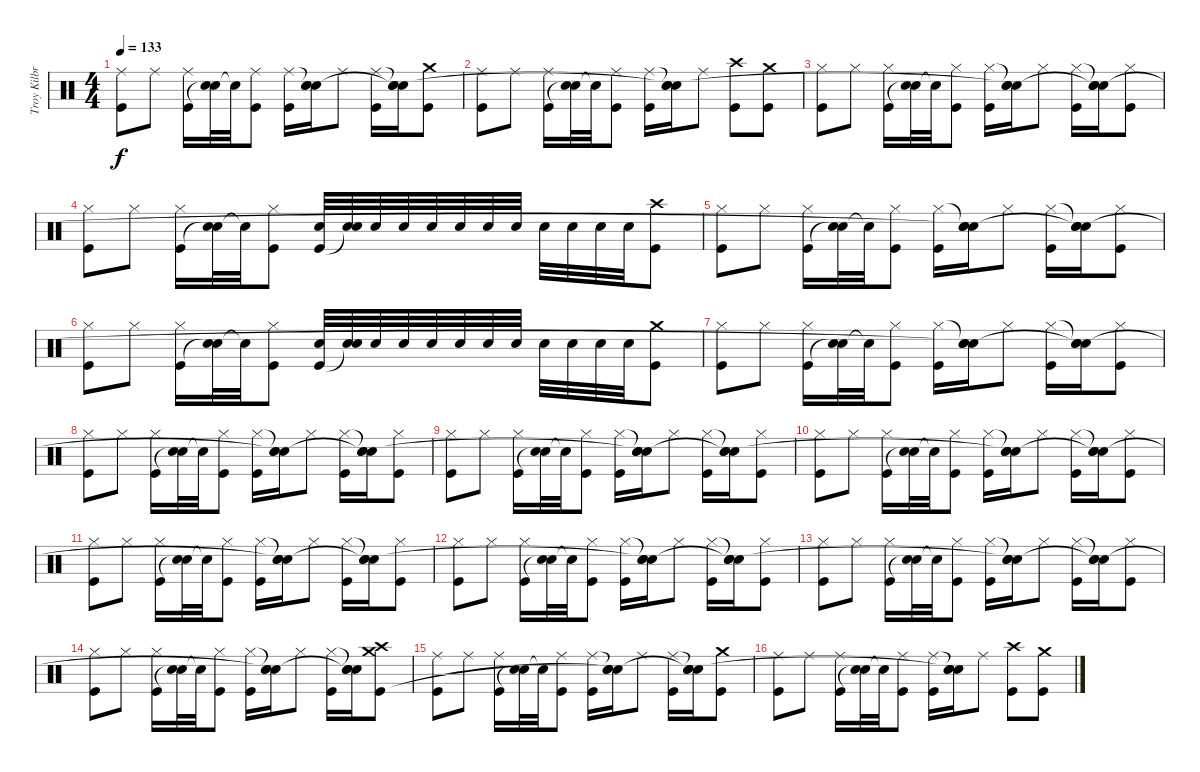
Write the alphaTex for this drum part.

\track ("Troy Kilbride" "Troy Kilbr") {instrument percussion}
\staff {score}
\articulation defaults
\ts (4 4)
\tempo 133
\clef neutral
\ks c
("Ride (middle)" "Kick (hit)").8{dy f} "Ride (middle)".8 ("Ride (middle)" "Kick (hit)").16 ("Electric Snare (hit)" "Snare (hit)"{t}).32 "Snare (hit)"{t}.32 ("Ride (middle)" "Kick (hit)").8 ("Ride (middle)" "Kick (hit)").16 ("Snare (hit)"{t} "Electric Snare (hit)" "Snare (hit)"{t}).16 "Ride (middle)".8 ("Ride (middle)" "Kick (hit)").16 ("Snare (hit)"{t} "Electric Snare (hit)" "Snare (hit)"{t}).16 ("Crash medium (hit)" "Kick (hit)").8 |
("Ride (middle)" "Kick (hit)").8 "Ride (middle)".8 ("Ride (middle)" "Kick (hit)").16 ("Electric Snare (hit)" "Snare (hit)"{t}).32 "Snare (hit)"{t}.32 ("Ride (middle)" "Kick (hit)").8 ("Ride (middle)" "Kick (hit)").16 ("Snare (hit)"{t} "Electric Snare (hit)" "Snare (hit)"{t}).16 "Ride (middle)".8 ("Crash high (hit)" "Kick (hit)").8 ("Crash medium (hit)" "Kick (hit)").8 |
("Hi-Hat (closed)" "Kick (hit)").8 "Hi-Hat (closed)".8 ("Hi-Hat (closed)" "Kick (hit)").16 ("Electric Snare (hit)" "Snare (hit)"{t}).32 "Snare (hit)"{t}.32 ("Hi-Hat (closed)" "Kick (hit)").8 ("Hi-Hat (closed)" "Kick (hit)").16 ("Snare (hit)"{t} "Electric Snare (hit)" "Snare (hit)"{t}).16 "Hi-Hat (closed)".8 ("Hi-Hat (closed)" "Kick (hit)").16 ("Snare (hit)"{t} "Electric Snare (hit)" "Snare (hit)"{t}).16 ("Hi-Hat (closed)" "Kick (hit)").8 |
("Hi-Hat (closed)" "Kick (hit)").8 "Hi-Hat (closed)".8 ("Hi-Hat (closed)" "Kick (hit)").16 ("Electric Snare (hit)" "Snare (hit)"{t}).32 "Snare (hit)"{t}.32 ("Hi-Hat (closed)" "Kick (hit)").8 ("Electric Snare (hit)" "Kick (hit)").32 ("Electric Snare (hit)" "Snare (hit)"{t}).32 "Electric Snare (hit)".32 "Electric Snare (hit)".32 "Electric Snare (hit)".32 "Electric Snare (hit)".32 "Electric Snare (hit)".32 "Electric Snare (hit)".32 "Electric Snare (hit)".32 "Electric Snare (hit)".32 "Electric Snare (hit)".32 "Electric Snare (hit)".32 ("Crash high (hit)" "Kick (hit)").8 |
("Hi-Hat (closed)" "Kick (hit)").8 "Hi-Hat (closed)".8 ("Hi-Hat (closed)" "Kick (hit)").16 ("Electric Snare (hit)" "Snare (hit)"{t}).32 "Snare (hit)"{t}.32 ("Hi-Hat (closed)" "Kick (hit)").8 ("Hi-Hat (closed)" "Kick (hit)").16 ("Snare (hit)"{t} "Electric Snare (hit)" "Snare (hit)"{t}).16 "Hi-Hat (closed)".8 ("Hi-Hat (closed)" "Kick (hit)").16 ("Snare (hit)"{t} "Electric Snare (hit)" "Snare (hit)"{t}).16 ("Hi-Hat (closed)" "Kick (hit)").8 |
("Hi-Hat (closed)" "Kick (hit)").8 "Hi-Hat (closed)".8 ("Hi-Hat (closed)" "Kick (hit)").16 ("Electric Snare (hit)" "Snare (hit)"{t}).32 "Snare (hit)"{t}.32 ("Hi-Hat (closed)" "Kick (hit)").8 ("Electric Snare (hit)" "Kick (hit)").32 ("Electric Snare (hit)" "Snare (hit)"{t}).32 "Electric Snare (hit)".32 "Electric Snare (hit)".32 "Electric Snare (hit)".32 "Electric Snare (hit)".32 "Electric Snare (hit)".32 "Electric Snare (hit)".32 "Electric Snare (hit)".32 "Electric Snare (hit)".32 "Electric Snare (hit)".32 "Electric Snare (hit)".32 ("Crash medium (hit)" "Kick (hit)").8 |
("Hi-Hat (closed)" "Kick (hit)").8 "Hi-Hat (closed)".8 ("Hi-Hat (closed)" "Kick (hit)").16 ("Electric Snare (hit)" "Snare (hit)"{t}).32 "Snare (hit)"{t}.32 ("Hi-Hat (closed)" "Kick (hit)").8 ("Hi-Hat (closed)" "Kick (hit)").16 ("Snare (hit)"{t} "Electric Snare (hit)" "Snare (hit)"{t}).16 "Hi-Hat (closed)".8 ("Hi-Hat (closed)" "Kick (hit)").16 ("Snare (hit)"{t} "Electric Snare (hit)" "Snare (hit)"{t}).16 ("Hi-Hat (closed)" "Kick (hit)").8 |
("Hi-Hat (closed)" "Kick (hit)").8 "Hi-Hat (closed)".8 ("Hi-Hat (closed)" "Kick (hit)").16 ("Electric Snare (hit)" "Snare (hit)"{t}).32 "Snare (hit)"{t}.32 ("Hi-Hat (closed)" "Kick (hit)").8 ("Hi-Hat (closed)" "Kick (hit)").16 ("Snare (hit)"{t} "Electric Snare (hit)" "Snare (hit)"{t}).16 "Hi-Hat (closed)".8 ("Hi-Hat (closed)" "Kick (hit)").16 ("Snare (hit)"{t} "Electric Snare (hit)" "Snare (hit)"{t}).16 ("Hi-Hat (closed)" "Kick (hit)").8 |
("Hi-Hat (closed)" "Kick (hit)").8 "Hi-Hat (closed)".8 ("Hi-Hat (closed)" "Kick (hit)").16 ("Electric Snare (hit)" "Snare (hit)"{t}).32 "Snare (hit)"{t}.32 ("Hi-Hat (closed)" "Kick (hit)").8 ("Hi-Hat (closed)" "Kick (hit)").16 ("Snare (hit)"{t} "Electric Snare (hit)" "Snare (hit)"{t}).16 "Hi-Hat (closed)".8 ("Hi-Hat (closed)" "Kick (hit)").16 ("Snare (hit)"{t} "Electric Snare (hit)" "Snare (hit)"{t}).16 ("Hi-Hat (closed)" "Kick (hit)").8 |
("Hi-Hat (closed)" "Kick (hit)").8 "Hi-Hat (closed)".8 ("Hi-Hat (closed)" "Kick (hit)").16 ("Electric Snare (hit)" "Snare (hit)"{t}).32 "Snare (hit)"{t}.32 ("Hi-Hat (closed)" "Kick (hit)").8 ("Hi-Hat (closed)" "Kick (hit)").16 ("Snare (hit)"{t} "Electric Snare (hit)" "Snare (hit)"{t}).16 "Hi-Hat (closed)".8 ("Hi-Hat (closed)" "Kick (hit)").16 ("Snare (hit)"{t} "Electric Snare (hit)" "Snare (hit)"{t}).16 ("Hi-Hat (closed)" "Kick (hit)").8 |
("Hi-Hat (closed)" "Kick (hit)").8 "Hi-Hat (closed)".8 ("Hi-Hat (closed)" "Kick (hit)").16 ("Electric Snare (hit)" "Snare (hit)"{t}).32 "Snare (hit)"{t}.32 ("Hi-Hat (closed)" "Kick (hit)").8 ("Hi-Hat (closed)" "Kick (hit)").16 ("Snare (hit)"{t} "Electric Snare (hit)" "Snare (hit)"{t}).16 "Hi-Hat (closed)".8 ("Hi-Hat (closed)" "Kick (hit)").16 ("Snare (hit)"{t} "Electric Snare (hit)" "Snare (hit)"{t}).16 ("Hi-Hat (closed)" "Kick (hit)").8 |
("Hi-Hat (closed)" "Kick (hit)").8 "Hi-Hat (closed)".8 ("Hi-Hat (closed)" "Kick (hit)").16 ("Electric Snare (hit)" "Snare (hit)"{t}).32 "Snare (hit)"{t}.32 ("Hi-Hat (closed)" "Kick (hit)").8 ("Hi-Hat (closed)" "Kick (hit)").16 ("Snare (hit)"{t} "Electric Snare (hit)" "Snare (hit)"{t}).16 "Hi-Hat (closed)".8 ("Hi-Hat (closed)" "Kick (hit)").16 ("Snare (hit)"{t} "Electric Snare (hit)" "Snare (hit)"{t}).16 ("Hi-Hat (closed)" "Kick (hit)").8 |
("Hi-Hat (closed)" "Kick (hit)").8 "Hi-Hat (closed)".8 ("Hi-Hat (closed)" "Kick (hit)").16 ("Electric Snare (hit)" "Snare (hit)"{t}).32 "Snare (hit)"{t}.32 ("Hi-Hat (closed)" "Kick (hit)").8 ("Hi-Hat (closed)" "Kick (hit)").16 ("Snare (hit)"{t} "Electric Snare (hit)" "Snare (hit)"{t}).16 "Hi-Hat (closed)".8 ("Hi-Hat (closed)" "Kick (hit)").16 ("Snare (hit)"{t} "Electric Snare (hit)" "Snare (hit)"{t}).16 ("Hi-Hat (closed)" "Kick (hit)").8 |
("Hi-Hat (closed)" "Kick (hit)").8 "Hi-Hat (closed)".8 ("Hi-Hat (closed)" "Kick (hit)").16 ("Electric Snare (hit)" "Snare (hit)"{t}).32 "Snare (hit)"{t}.32 ("Hi-Hat (closed)" "Kick (hit)").8 ("Hi-Hat (closed)" "Kick (hit)").16 ("Snare (hit)"{t} "Electric Snare (hit)" "Snare (hit)"{t}).16 "Hi-Hat (closed)".8 ("Hi-Hat (closed)" "Kick (hit)").16 ("Snare (hit)"{t} "Electric Snare (hit)" "Snare (hit)"{t}).16 ("Crash high (hit)" "Crash medium (hit)" "Kick (hit)").8 |
("Ride (middle)" "Kick (hit)").8 "Ride (middle)".8 ("Ride (middle)" "Kick (hit)").16 ("Electric Snare (hit)" "Snare (hit)"{t}).32 "Snare (hit)"{t}.32 ("Ride (middle)" "Kick (hit)").8 ("Ride (middle)" "Kick (hit)").16 ("Snare (hit)"{t} "Electric Snare (hit)" "Snare (hit)"{t}).16 "Ride (middle)".8 ("Ride (middle)" "Kick (hit)").16 ("Snare (hit)"{t} "Electric Snare (hit)" "Snare (hit)"{t}).16 ("Crash medium (hit)" "Kick (hit)").8 |
("Ride (middle)" "Kick (hit)").8 "Ride (middle)".8 ("Ride (middle)" "Kick (hit)").16 ("Electric Snare (hit)" "Snare (hit)"{t}).32 "Snare (hit)"{t}.32 ("Ride (middle)" "Kick (hit)").8 ("Ride (middle)" "Kick (hit)").16 ("Snare (hit)"{t} "Electric Snare (hit)" "Snare (hit)"{t}).16 "Ride (middle)".8 ("Crash high (hit)" "Kick (hit)").8 ("Crash medium (hit)" "Kick (hit)").8
